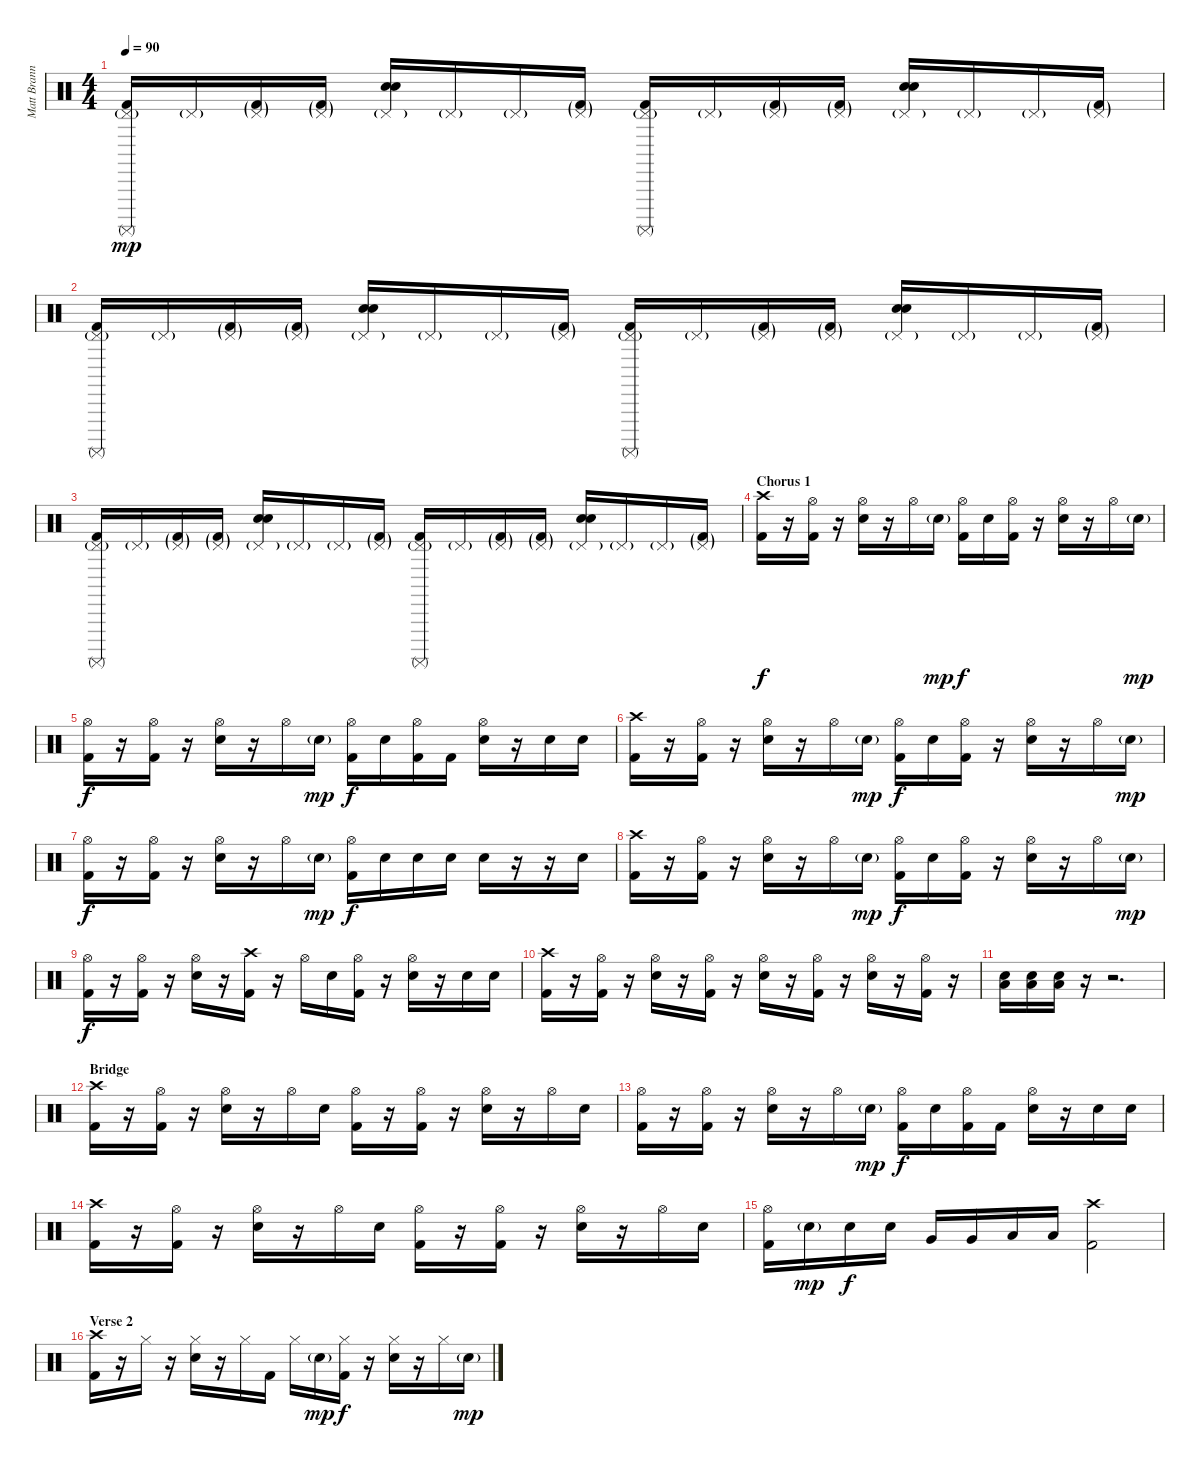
\track ("Matt Brann - Drums" "Matt Brann") {instrument percussion}
\staff {score}
\articulation defaults
\ts (4 4)
\tempo 90
\clef neutral
\ks c
("Pedal Hi-Hat (hit)"{g} "Surdo (mute)" "Kick (hit) 2").16{dy mp} "Pedal Hi-Hat (hit)"{g}.16 ("Pedal Hi-Hat (hit)"{g} "Kick (hit) 2"{g}).16 ("Pedal Hi-Hat (hit)"{g} "Kick (hit) 2"{g}).16 ("Pedal Hi-Hat (hit)"{g} "Electric Snare (hit)" "Hand Clap (hit)").16 "Pedal Hi-Hat (hit)"{g}.16 "Pedal Hi-Hat (hit)"{g}.16 ("Pedal Hi-Hat (hit)"{g} "Kick (hit) 2"{g}).16 ("Pedal Hi-Hat (hit)"{g} "Surdo (mute)" "Kick (hit) 2").16 "Pedal Hi-Hat (hit)"{g}.16 ("Pedal Hi-Hat (hit)"{g} "Kick (hit) 2"{g}).16 ("Pedal Hi-Hat (hit)"{g} "Kick (hit) 2"{g}).16 ("Pedal Hi-Hat (hit)"{g} "Electric Snare (hit)" "Hand Clap (hit)").16 "Pedal Hi-Hat (hit)"{g}.16 "Pedal Hi-Hat (hit)"{g}.16 ("Pedal Hi-Hat (hit)"{g} "Kick (hit) 2"{g}).16 |
("Pedal Hi-Hat (hit)"{g} "Surdo (mute)" "Kick (hit) 2").16 "Pedal Hi-Hat (hit)"{g}.16 ("Pedal Hi-Hat (hit)"{g} "Kick (hit) 2"{g}).16 ("Pedal Hi-Hat (hit)"{g} "Kick (hit) 2"{g}).16 ("Pedal Hi-Hat (hit)"{g} "Electric Snare (hit)" "Hand Clap (hit)").16 "Pedal Hi-Hat (hit)"{g}.16 "Pedal Hi-Hat (hit)"{g}.16 ("Pedal Hi-Hat (hit)"{g} "Kick (hit) 2"{g}).16 ("Pedal Hi-Hat (hit)"{g} "Surdo (mute)" "Kick (hit) 2").16 "Pedal Hi-Hat (hit)"{g}.16 ("Pedal Hi-Hat (hit)"{g} "Kick (hit) 2"{g}).16 ("Pedal Hi-Hat (hit)"{g} "Kick (hit) 2"{g}).16 ("Pedal Hi-Hat (hit)"{g} "Electric Snare (hit)" "Hand Clap (hit)").16 "Pedal Hi-Hat (hit)"{g}.16 "Pedal Hi-Hat (hit)"{g}.16 ("Pedal Hi-Hat (hit)"{g} "Kick (hit) 2"{g}).16 |
("Pedal Hi-Hat (hit)"{g} "Surdo (mute)" "Kick (hit) 2").16 "Pedal Hi-Hat (hit)"{g}.16 ("Pedal Hi-Hat (hit)"{g} "Kick (hit) 2"{g}).16 ("Pedal Hi-Hat (hit)"{g} "Kick (hit) 2"{g}).16 ("Pedal Hi-Hat (hit)"{g} "Electric Snare (hit)" "Hand Clap (hit)").16 "Pedal Hi-Hat (hit)"{g}.16 "Pedal Hi-Hat (hit)"{g}.16 ("Pedal Hi-Hat (hit)"{g} "Kick (hit) 2"{g}).16 ("Pedal Hi-Hat (hit)"{g} "Surdo (mute)" "Kick (hit) 2").16 "Pedal Hi-Hat (hit)"{g}.16 ("Pedal Hi-Hat (hit)"{g} "Kick (hit) 2"{g}).16 ("Pedal Hi-Hat (hit)"{g} "Kick (hit) 2"{g}).16 ("Pedal Hi-Hat (hit)"{g} "Electric Snare (hit)" "Hand Clap (hit)").16 "Pedal Hi-Hat (hit)"{g}.16 "Pedal Hi-Hat (hit)"{g}.16 ("Pedal Hi-Hat (hit)"{g} "Kick (hit) 2"{g}).16 |
\section ("" "Chorus 1")
("Crash high (hit)" "Kick (hit) 2").16{dy f volume 15} r.16 ("Hi-Hat (open)" "Kick (hit) 2").16 r.16 ("Hi-Hat (open)" "Snare (hit) 2").16 r.16 "Hi-Hat (open)".16 "Snare (hit) 2"{g}.16{dy mp} ("Hi-Hat (open)" "Kick (hit) 2").16{dy f} "Snare (hit) 2".16 ("Hi-Hat (open)" "Kick (hit) 2").16 r.16 ("Hi-Hat (open)" "Snare (hit) 2").16 r.16 "Hi-Hat (open)".16 "Snare (hit) 2"{g}.16{dy mp} |
("Hi-Hat (open)" "Kick (hit) 2").16{dy f} r.16 ("Hi-Hat (open)" "Kick (hit) 2").16 r.16 ("Hi-Hat (open)" "Snare (hit) 2").16 r.16 "Hi-Hat (open)".16 "Snare (hit) 2"{g}.16{dy mp} ("Hi-Hat (open)" "Kick (hit) 2").16{dy f} "Snare (hit) 2".16 ("Hi-Hat (open)" "Kick (hit) 2").16 "Kick (hit) 2".16 ("Hi-Hat (open)" "Snare (hit) 2").16 r.16 "Snare (hit) 2".16 "Snare (hit) 2".16 |
("Crash high (hit)" "Kick (hit) 2").16 r.16 ("Hi-Hat (open)" "Kick (hit) 2").16 r.16 ("Hi-Hat (open)" "Snare (hit) 2").16 r.16 "Hi-Hat (open)".16 "Snare (hit) 2"{g}.16{dy mp} ("Hi-Hat (open)" "Kick (hit) 2").16{dy f} "Snare (hit) 2".16 ("Hi-Hat (open)" "Kick (hit) 2").16 r.16 ("Hi-Hat (open)" "Snare (hit) 2").16 r.16 "Hi-Hat (open)".16 "Snare (hit) 2"{g}.16{dy mp} |
("Hi-Hat (open)" "Kick (hit) 2").16{dy f} r.16 ("Hi-Hat (open)" "Kick (hit) 2").16 r.16 ("Hi-Hat (open)" "Snare (hit) 2").16 r.16 "Hi-Hat (open)".16 "Snare (hit) 2"{g}.16{dy mp} ("Hi-Hat (open)" "Kick (hit) 2").16{dy f} "Snare (hit) 2".16 "Snare (hit) 2".16 "Snare (hit) 2".16 "Snare (hit) 2".16 r.16 r.16 "Snare (hit) 2".16 |
("Crash high (hit)" "Kick (hit) 2").16 r.16 ("Hi-Hat (open)" "Kick (hit) 2").16 r.16 ("Hi-Hat (open)" "Snare (hit) 2").16 r.16 "Hi-Hat (open)".16 "Snare (hit) 2"{g}.16{dy mp} ("Hi-Hat (open)" "Kick (hit) 2").16{dy f} "Snare (hit) 2".16 ("Hi-Hat (open)" "Kick (hit) 2").16 r.16 ("Hi-Hat (open)" "Snare (hit) 2").16 r.16 "Hi-Hat (open)".16 "Snare (hit) 2"{g}.16{dy mp} |
("Hi-Hat (open)" "Kick (hit) 2").16{dy f} r.16 ("Hi-Hat (open)" "Kick (hit) 2").16 r.16 ("Hi-Hat (open)" "Snare (hit) 2").16 r.16 ("Crash high (hit)" "Kick (hit) 2").16 r.16 "Hi-Hat (open)".16 "Snare (hit) 2".16 ("Hi-Hat (open)" "Kick (hit) 2").16 r.16 ("Hi-Hat (open)" "Snare (hit) 2").16 r.16 "Snare (hit) 2".16 "Snare (hit) 2".16 |
("Crash high (hit)" "Kick (hit) 2").16 r.16 ("Hi-Hat (open)" "Kick (hit) 2").16 r.16 ("Hi-Hat (open)" "Snare (hit) 2").16 r.16 ("Hi-Hat (open)" "Kick (hit) 2").16 r.16 ("Hi-Hat (open)" "Snare (hit) 2").16 r.16 ("Hi-Hat (open)" "Kick (hit) 2").16 r.16 ("Hi-Hat (open)" "Snare (hit) 2").16 r.16 ("Hi-Hat (open)" "Kick (hit) 2").16 r.16 |
("Snare (hit) 2" "Low Floor Tom (hit)").16 ("Snare (hit) 2" "Low Floor Tom (hit)").16 ("Snare (hit) 2" "Low Floor Tom (hit)").16 r.16 r.2{d} |
\section ("" "Bridge")
("Crash high (hit)" "Kick (hit) 2").16 r.16 ("Hi-Hat (open)" "Kick (hit) 2").16 r.16 ("Hi-Hat (open)" "Snare (hit) 2").16 r.16 "Hi-Hat (open)".16 "Snare (hit) 2".16 ("Hi-Hat (open)" "Kick (hit) 2").16 r.16 ("Hi-Hat (open)" "Kick (hit) 2").16 r.16 ("Hi-Hat (open)" "Snare (hit) 2").16 r.16 "Hi-Hat (open)".16 "Snare (hit) 2".16 |
("Hi-Hat (open)" "Kick (hit) 2").16 r.16 ("Hi-Hat (open)" "Kick (hit) 2").16 r.16 ("Hi-Hat (open)" "Snare (hit) 2").16 r.16 "Hi-Hat (open)".16 "Snare (hit) 2"{g}.16{dy mp} ("Hi-Hat (open)" "Kick (hit) 2").16{dy f} "Snare (hit) 2".16 ("Hi-Hat (open)" "Kick (hit) 2").16 "Kick (hit) 2".16 ("Hi-Hat (open)" "Snare (hit) 2").16 r.16 "Snare (hit) 2".16 "Snare (hit) 2".16 |
("Crash high (hit)" "Kick (hit) 2").16 r.16 ("Hi-Hat (open)" "Kick (hit) 2").16 r.16 ("Hi-Hat (open)" "Snare (hit) 2").16 r.16 "Hi-Hat (open)".16 "Snare (hit) 2".16 ("Hi-Hat (open)" "Kick (hit) 2").16 r.16 ("Hi-Hat (open)" "Kick (hit) 2").16 r.16 ("Hi-Hat (open)" "Snare (hit) 2").16 r.16 "Hi-Hat (open)".16 "Snare (hit) 2".16 |
("Hi-Hat (open)" "Kick (hit) 2").16 "Snare (hit) 2"{g}.16{dy mp} "Snare (hit) 2".16{dy f} "Snare (hit) 2".16 "Very Low Tom (hit)".16 "Very Low Tom (hit)".16 "Low Floor Tom (hit)".16 "Low Floor Tom (hit)".16 ("Crash high (hit)" "Kick (hit) 2").2 |
\section ("" "Verse 2")
("Crash high (hit)" "Kick (hit) 2").16 r.16 "Hi-Hat (closed)".16 r.16 ("Hi-Hat (closed)" "Snare (hit) 2").16 r.16 "Hi-Hat (closed)".16 "Kick (hit) 2".16 "Hi-Hat (closed)".16 "Snare (hit) 2"{g}.16{dy mp} ("Hi-Hat (closed)" "Kick (hit) 2").16{dy f} r.16 ("Hi-Hat (closed)" "Snare (hit) 2").16 r.16 "Hi-Hat (closed)".16 "Snare (hit) 2"{g}.16{dy mp}
